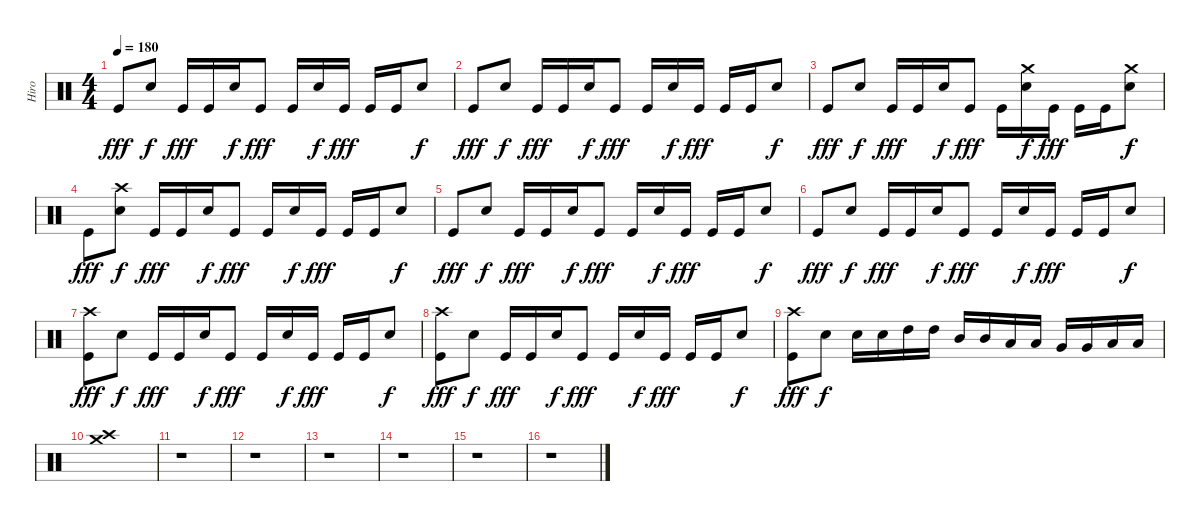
\track ("Hiro" "Hiro") {instrument percussion}
\staff {score}
\articulation defaults
\ts (4 4)
\tempo 180
\clef neutral
\ks c "Kick (hit)".8{dy fff} "Electric Snare (hit)".8{dy f} "Kick (hit)".16{dy fff} "Kick (hit)".16 "Electric Snare (hit)".16{dy f} "Kick (hit)".8{dy fff} "Kick (hit)".16 "Electric Snare (hit)".16{dy f} "Kick (hit)".16{dy fff} "Kick (hit)".16 "Kick (hit)".16 "Electric Snare (hit)".8{dy f}
|
"Kick (hit)".8{dy fff} "Electric Snare (hit)".8{dy f} "Kick (hit)".16{dy fff} "Kick (hit)".16 "Electric Snare (hit)".16{dy f} "Kick (hit)".8{dy fff} "Kick (hit)".16 "Electric Snare (hit)".16{dy f} "Kick (hit)".16{dy fff} "Kick (hit)".16 "Kick (hit)".16 "Electric Snare (hit)".8{dy f} |
"Kick (hit)".8{dy fff} "Electric Snare (hit)".8{dy f} "Kick (hit)".16{dy fff} "Kick (hit)".16 "Electric Snare (hit)".16{dy f} "Kick (hit)".8{dy fff} "Kick (hit)".16 ("Electric Snare (hit)" "Crash medium (hit)").16{dy f} "Kick (hit)".16{dy fff} "Kick (hit)".16 "Kick (hit)".16 ("Electric Snare (hit)" "Crash medium (hit)").8{dy f} |
"Kick (hit)".8{dy fff} ("Crash high (hit)" "Electric Snare (hit)").8{dy f} "Kick (hit)".16{dy fff} "Kick (hit)".16 "Electric Snare (hit)".16{dy f} "Kick (hit)".8{dy fff} "Kick (hit)".16 "Electric Snare (hit)".16{dy f} "Kick (hit)".16{dy fff} "Kick (hit)".16 "Kick (hit)".16 "Electric Snare (hit)".8{dy f} |
"Kick (hit)".8{dy fff} "Electric Snare (hit)".8{dy f} "Kick (hit)".16{dy fff} "Kick (hit)".16 "Electric Snare (hit)".16{dy f} "Kick (hit)".8{dy fff} "Kick (hit)".16 "Electric Snare (hit)".16{dy f} "Kick (hit)".16{dy fff} "Kick (hit)".16 "Kick (hit)".16 "Electric Snare (hit)".8{dy f} |
"Kick (hit)".8{dy fff} "Electric Snare (hit)".8{dy f} "Kick (hit)".16{dy fff} "Kick (hit)".16 "Electric Snare (hit)".16{dy f} "Kick (hit)".8{dy fff} "Kick (hit)".16 "Electric Snare (hit)".16{dy f} "Kick (hit)".16{dy fff} "Kick (hit)".16 "Kick (hit)".16 "Electric Snare (hit)".8{dy f} |
("Crash high (hit)" "Kick (hit)").8{dy fff} "Electric Snare (hit)".8{dy f} "Kick (hit)".16{dy fff} "Kick (hit)".16 "Electric Snare (hit)".16{dy f} "Kick (hit)".8{dy fff} "Kick (hit)".16 "Electric Snare (hit)".16{dy f} "Kick (hit)".16{dy fff} "Kick (hit)".16 "Kick (hit)".16 "Electric Snare (hit)".8{dy f} |
("Crash high (hit)" "Kick (hit)").8{dy fff} "Electric Snare (hit)".8{dy f} "Kick (hit)".16{dy fff} "Kick (hit)".16 "Electric Snare (hit)".16{dy f} "Kick (hit)".8{dy fff} "Kick (hit)".16 "Electric Snare (hit)".16{dy f} "Kick (hit)".16{dy fff} "Kick (hit)".16 "Kick (hit)".16 "Electric Snare (hit)".8{dy f} |
("Crash high (hit)" "Kick (hit)").8{dy fff} "Electric Snare (hit)".8{dy f} "Electric Snare (hit)".16 "Electric Snare (hit)".16 "High Tom (hit)".16 "High Tom (hit)".16 "Mid Tom (hit)".16 "Mid Tom (hit)".16 "Low Tom (hit)".16 "Low Tom (hit)".16 "Very Low Tom (hit)".16 "Very Low Tom (hit)".16 "Low Floor Tom (hit)".16 "Low Floor Tom (hit)".16 |
("Crash high (hit)" "Crash medium (hit)").1 |
r.1 |
r.1 |
r.1 |
r.1 |
r.1 |
r.1
